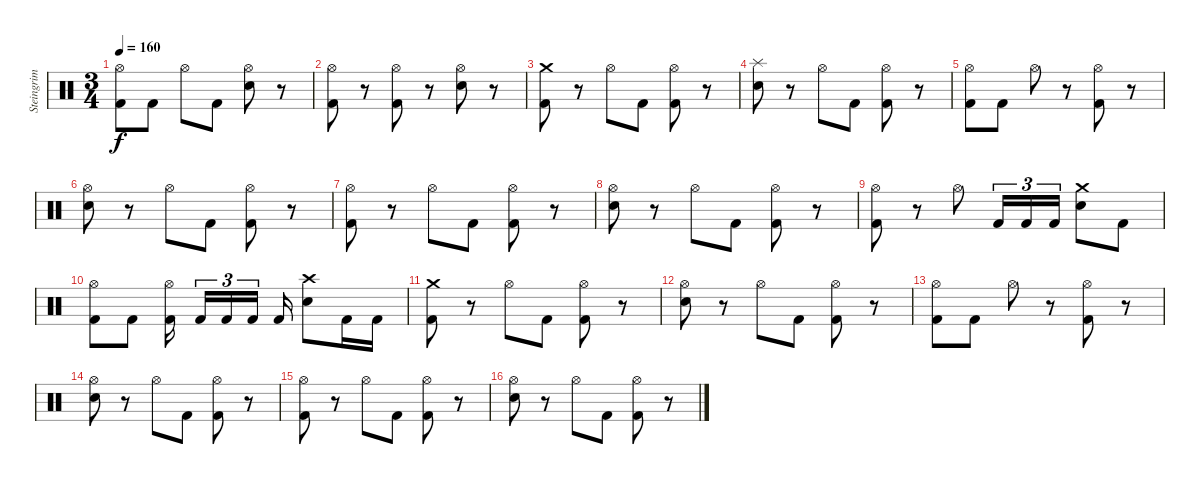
\track ("Steingrim Trommur" "Steingrim ") {instrument percussion}
\staff {score}
\articulation defaults
\ts (3 4)
\tempo 160
\clef neutral
\ks c
("Hi-Hat (open)" "Kick (hit) 2").8{dy f} "Kick (hit) 2".8 "Hi-Hat (open)".8 "Kick (hit) 2".8 ("Hi-Hat (open)" "Electric Snare (hit)").8 r.8 |
("Hi-Hat (open)" "Kick (hit) 2").8 r.8 ("Hi-Hat (open)" "Kick (hit) 2").8 r.8 ("Hi-Hat (open)" "Electric Snare (hit)").8 r.8 |
("Crash medium (hit)" "Kick (hit) 2").8 r.8 "Hi-Hat (open)".8 "Kick (hit) 2".8 ("Hi-Hat (open)" "Kick (hit) 2").8 r.8 |
("Splash (hit)" "Electric Snare (hit)").8 r.8 "Hi-Hat (open)".8 "Kick (hit) 2".8 ("Hi-Hat (open)" "Kick (hit) 2").8 r.8 |
("Hi-Hat (open)" "Kick (hit) 2").8 "Kick (hit) 2".8 "Hi-Hat (open)".8 r.8 ("Hi-Hat (open)" "Kick (hit) 2").8 r.8 |
("Hi-Hat (open)" "Electric Snare (hit)").8 r.8 "Hi-Hat (open)".8 "Kick (hit) 2".8 ("Hi-Hat (open)" "Kick (hit) 2").8 r.8 |
("Hi-Hat (open)" "Kick (hit) 2").8 r.8 "Hi-Hat (open)".8 "Kick (hit) 2".8 ("Hi-Hat (open)" "Kick (hit) 2").8 r.8 |
("Hi-Hat (open)" "Electric Snare (hit)").8 r.8 "Hi-Hat (open)".8 "Kick (hit) 2".8 ("Hi-Hat (open)" "Kick (hit) 2").8 r.8 |
("Hi-Hat (open)" "Kick (hit) 2").8 r.8 "Hi-Hat (open)".8 "Kick (hit) 2".16{tu (3 2)} "Kick (hit) 2".16{tu (3 2)} "Kick (hit) 2".16{tu (3 2)} ("Crash medium (hit)" "Electric Snare (hit)").8 "Kick (hit) 2".8 |
("Hi-Hat (open)" "Kick (hit) 2").8 "Kick (hit) 2".8 ("Hi-Hat (open)" "Kick (hit) 2").16 "Kick (hit) 2".16{tu (3 2)} "Kick (hit) 2".16{tu (3 2)} "Kick (hit) 2".16{tu (3 2)} "Kick (hit) 2".16 ("Crash high (hit)" "Electric Snare (hit)").8 "Kick (hit) 2".16 "Kick (hit) 2".16 |
("Crash medium (hit)" "Kick (hit) 2").8 r.8 "Hi-Hat (open)".8 "Kick (hit) 2".8 ("Hi-Hat (open)" "Kick (hit) 2").8 r.8 |
("Hi-Hat (open)" "Electric Snare (hit)").8 r.8 "Hi-Hat (open)".8 "Kick (hit) 2".8 ("Hi-Hat (open)" "Kick (hit) 2").8 r.8 |
("Hi-Hat (open)" "Kick (hit) 2").8 "Kick (hit) 2".8 "Hi-Hat (open)".8 r.8 ("Hi-Hat (open)" "Kick (hit) 2").8 r.8 |
("Hi-Hat (open)" "Electric Snare (hit)").8 r.8 "Hi-Hat (open)".8 "Kick (hit) 2".8 ("Hi-Hat (open)" "Kick (hit) 2").8 r.8 |
("Hi-Hat (open)" "Kick (hit) 2").8 r.8 "Hi-Hat (open)".8 "Kick (hit) 2".8 ("Hi-Hat (open)" "Kick (hit) 2").8 r.8 |
("Hi-Hat (open)" "Electric Snare (hit)").8 r.8 "Hi-Hat (open)".8 "Kick (hit) 2".8 ("Hi-Hat (open)" "Kick (hit) 2").8 r.8
